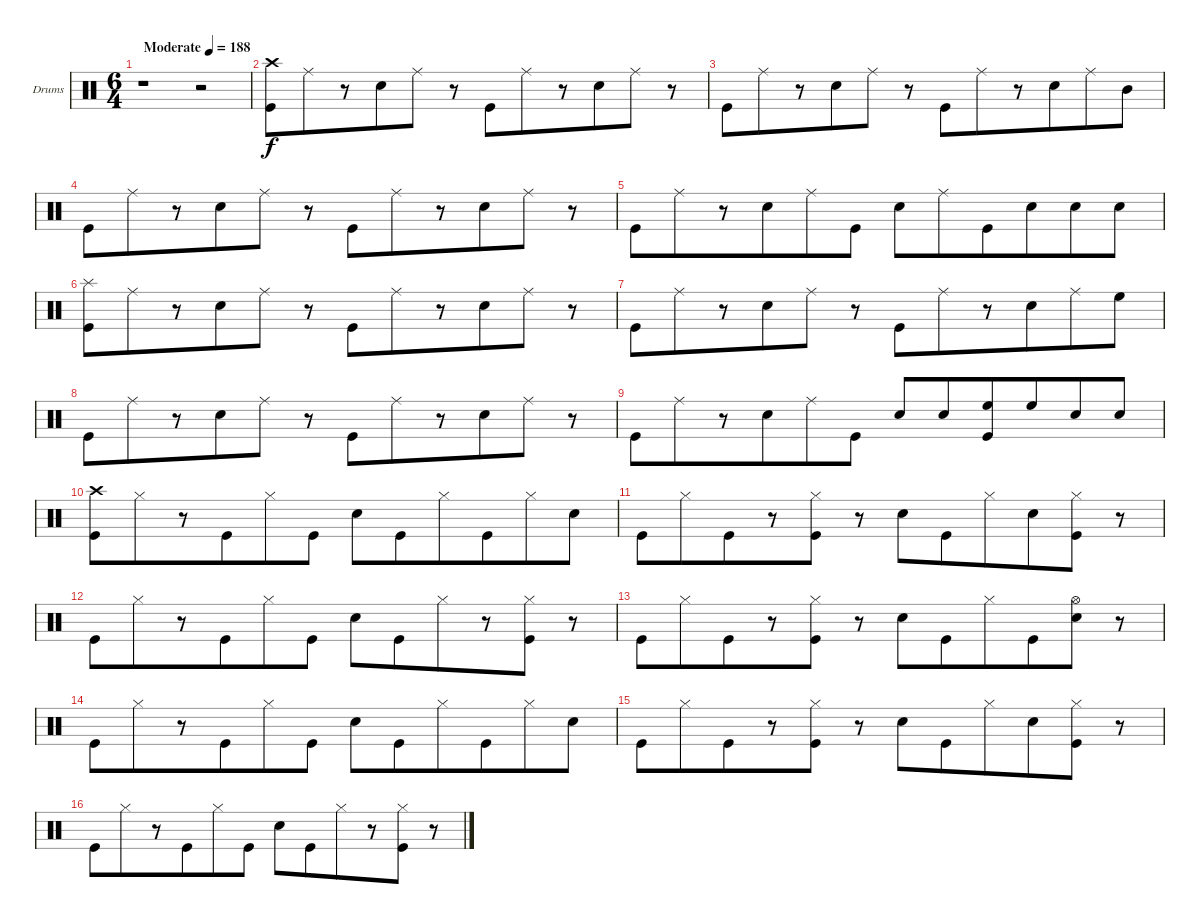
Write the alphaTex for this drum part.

\bracketExtendMode groupsimilarinstruments
\firstSystemTrackNameOrientation horizontal
\otherSystemsTrackNameOrientation horizontal
\track ("Drumkit" "Drums") {instrument percussion}
\staff {score}
\articulation defaults
\ts (6 4)
\beaming (8 6 6)
\tempo (188 "Moderate")
\clef neutral
\ks c
r.1{dy f} r.2 |
("Kick (hit)" "Crash high (hit)").8 "Ride (middle)".8 r.8 "Snare (hit) 2".8 "Ride (middle)".8 r.8 "Kick (hit)".8 "Ride (middle)".8 r.8 "Snare (hit) 2".8 "Ride (middle)".8 r.8 |
"Kick (hit)".8 "Ride (middle)".8 r.8 "Snare (hit) 2".8 "Ride (middle)".8 r.8 "Kick (hit)".8 "Ride (middle)".8 r.8 "Snare (hit) 2".8 "Ride (middle)".8 "Mid Tom (hit)".8 |
"Kick (hit)".8 "Ride (middle)".8 r.8 "Snare (hit) 2".8 "Ride (middle)".8 r.8 "Kick (hit)".8 "Ride (middle)".8 r.8 "Snare (hit) 2".8 "Ride (middle)".8 r.8 |
"Kick (hit)".8 "Ride (middle)".8 r.8 "Snare (hit) 2".8 "Ride (middle)".8 "Kick (hit)".8 "Snare (hit) 2".8 "Ride (middle)".8 "Kick (hit)".8 "Snare (hit) 2".8 "Snare (hit) 2".8 "Snare (hit) 2".8 |
("Kick (hit)" "Splash (hit)").8 "Ride (middle)".8 r.8 "Snare (hit) 2".8 "Ride (middle)".8 r.8 "Kick (hit)".8 "Ride (middle)".8 r.8 "Snare (hit) 2".8 "Ride (middle)".8 r.8 |
"Kick (hit)".8 "Ride (middle)".8 r.8 "Snare (hit) 2".8 "Ride (middle)".8 r.8 "Kick (hit)".8 "Ride (middle)".8 r.8 "Snare (hit) 2".8 "Ride (middle)".8 "High Floor Tom (hit)".8 |
"Kick (hit)".8 "Ride (middle)".8 r.8 "Snare (hit) 2".8 "Ride (middle)".8 r.8 "Kick (hit)".8 "Ride (middle)".8 r.8 "Snare (hit) 2".8 "Ride (middle)".8 r.8 |
"Kick (hit)".8 "Ride (middle)".8 r.8 "Snare (hit) 2".8 "Ride (middle)".8 "Kick (hit)".8 "Snare (hit) 2".8 "Snare (hit) 2".8 ("High Floor Tom (hit)" "Kick (hit)").8 "High Floor Tom (hit)".8 "Snare (hit) 2".8 "Snare (hit) 2".8 |
("Crash high (hit)" "Kick (hit)").8 "Hi-Hat (closed)".8 r.8 "Kick (hit)".8 "Hi-Hat (closed)".8 "Kick (hit)".8 "Snare (hit) 2".8 "Kick (hit)".8 "Hi-Hat (closed)".8 "Kick (hit)".8 "Hi-Hat (closed)".8 "Snare (hit) 2".8 |
"Kick (hit)".8 "Hi-Hat (closed)".8 "Kick (hit)".8 r.8 ("Hi-Hat (closed)" "Kick (hit)").8 r.8 "Snare (hit) 2".8 "Kick (hit)".8 "Hi-Hat (closed)".8 "Snare (hit) 2".8 ("Hi-Hat (closed)" "Kick (hit)").8 r.8 |
"Kick (hit)".8 "Hi-Hat (closed)".8 r.8 "Kick (hit)".8 "Hi-Hat (closed)".8 "Kick (hit)".8 "Snare (hit) 2".8 "Kick (hit)".8 "Hi-Hat (closed)".8 r.8 ("Kick (hit)" "Hi-Hat (closed)").8 r.8 |
"Kick (hit)".8 "Hi-Hat (closed)".8 "Kick (hit)".8 r.8 ("Hi-Hat (closed)" "Kick (hit)").8 r.8 "Snare (hit) 2".8 "Kick (hit)".8 "Hi-Hat (closed)".8 "Kick (hit)".8 ("Snare (hit) 2" "Hi-Hat (open)").8 r.8 |
"Kick (hit)".8 "Hi-Hat (closed)".8 r.8 "Kick (hit)".8 "Hi-Hat (closed)".8 "Kick (hit)".8 "Snare (hit) 2".8 "Kick (hit)".8 "Hi-Hat (closed)".8 "Kick (hit)".8 "Hi-Hat (closed)".8 "Snare (hit) 2".8 |
"Kick (hit)".8 "Hi-Hat (closed)".8 "Kick (hit)".8 r.8 ("Hi-Hat (closed)" "Kick (hit)").8 r.8 "Snare (hit) 2".8 "Kick (hit)".8 "Hi-Hat (closed)".8 "Snare (hit) 2".8 ("Hi-Hat (closed)" "Kick (hit)").8 r.8 |
"Kick (hit)".8 "Hi-Hat (closed)".8 r.8 "Kick (hit)".8 "Hi-Hat (closed)".8 "Kick (hit)".8 "Snare (hit) 2".8 "Kick (hit)".8 "Hi-Hat (closed)".8 r.8 ("Kick (hit)" "Hi-Hat (closed)").8 r.8
